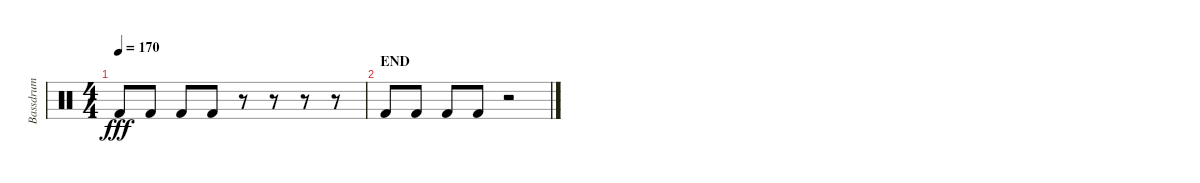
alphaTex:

\track ("Bassdrum" "Bassdrum") {instrument percussion}
\staff {score}
\articulation defaults
\ts (4 4)
\tempo 170
\clef neutral
\ks c "Kick (hit) 2".8{dy fff} "Kick (hit) 2".8 "Kick (hit) 2".8 "Kick (hit) 2".8
r.8 r.8 r.8 r.8 |
\section ("" "END")
"Kick (hit) 2".8 "Kick (hit) 2".8 "Kick (hit) 2".8 "Kick (hit) 2".8 r.2
